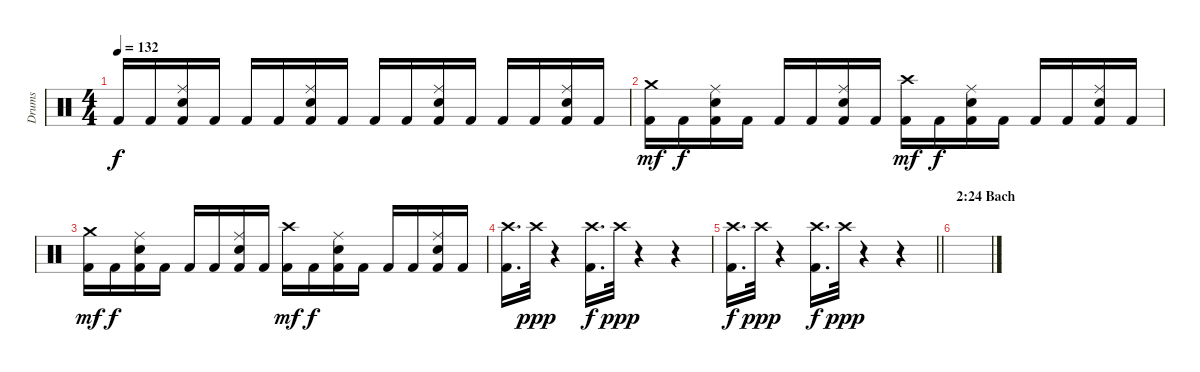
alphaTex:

\track ("Drums" "Drums") {instrument percussion}
\staff {score}
\articulation defaults
\ts (4 4)
\tempo 132
\clef neutral
\ks c "Kick (hit) 2".16{dy f} "Kick (hit) 2".16
("Ride (middle)" "Snare (hit) 2" "Kick (hit) 2").16 "Kick (hit) 2".16 "Kick (hit) 2".16 "Kick (hit) 2".16 ("Ride (middle)" "Snare (hit) 2" "Kick (hit) 2").16 "Kick (hit) 2".16 "Kick (hit) 2".16 "Kick (hit) 2".16 ("Ride (middle)" "Snare (hit) 2" "Kick (hit) 2").16 "Kick (hit) 2".16 "Kick (hit) 2".16 "Kick (hit) 2".16 ("Ride (middle)" "Snare (hit) 2" "Kick (hit) 2").16 "Kick (hit) 2".16 |
("Crash medium (hit)" "Kick (hit) 2").16{dy mf} "Kick (hit) 2".16{dy f} ("Ride (middle)" "Snare (hit) 2" "Kick (hit) 2").16 "Kick (hit) 2".16 "Kick (hit) 2".16 "Kick (hit) 2".16 ("Ride (middle)" "Snare (hit) 2" "Kick (hit) 2").16 "Kick (hit) 2".16 ("Crash high (hit)" "Kick (hit) 2").16{dy mf} "Kick (hit) 2".16{dy f} ("Ride (middle)" "Snare (hit) 2" "Kick (hit) 2").16 "Kick (hit) 2".16 "Kick (hit) 2".16 "Kick (hit) 2".16 ("Ride (middle)" "Snare (hit) 2" "Kick (hit) 2").16 "Kick (hit) 2".16 |
("Crash medium (hit)" "Kick (hit) 2").16{dy mf} "Kick (hit) 2".16{dy f} ("Ride (middle)" "Snare (hit) 2" "Kick (hit) 2").16 "Kick (hit) 2".16 "Kick (hit) 2".16 "Kick (hit) 2".16 ("Ride (middle)" "Snare (hit) 2" "Kick (hit) 2").16 "Kick (hit) 2".16 ("Crash high (hit)" "Kick (hit) 2").16{dy mf} "Kick (hit) 2".16{dy f} ("Ride (middle)" "Snare (hit) 2" "Kick (hit) 2").16 "Kick (hit) 2".16 "Kick (hit) 2".16 "Kick (hit) 2".16 ("Ride (middle)" "Snare (hit) 2" "Kick (hit) 2").16 "Kick (hit) 2".16 |
("Crash high (hit)" "Kick (hit) 2").16{d} "Crash high (hit)".32{dy ppp} r.4 ("Crash high (hit)" "Kick (hit) 2").16{d dy f} "Crash high (hit)".32{dy ppp} r.4 r.4 |
\barLineRight lightlight
("Crash high (hit)" "Kick (hit) 2").16{d dy f} "Crash high (hit)".32{dy ppp} r.4 ("Crash high (hit)" "Kick (hit) 2").16{d dy f} "Crash high (hit)".32{dy ppp} r.4 r.4 |
\section ("" "2:24 Bach")
